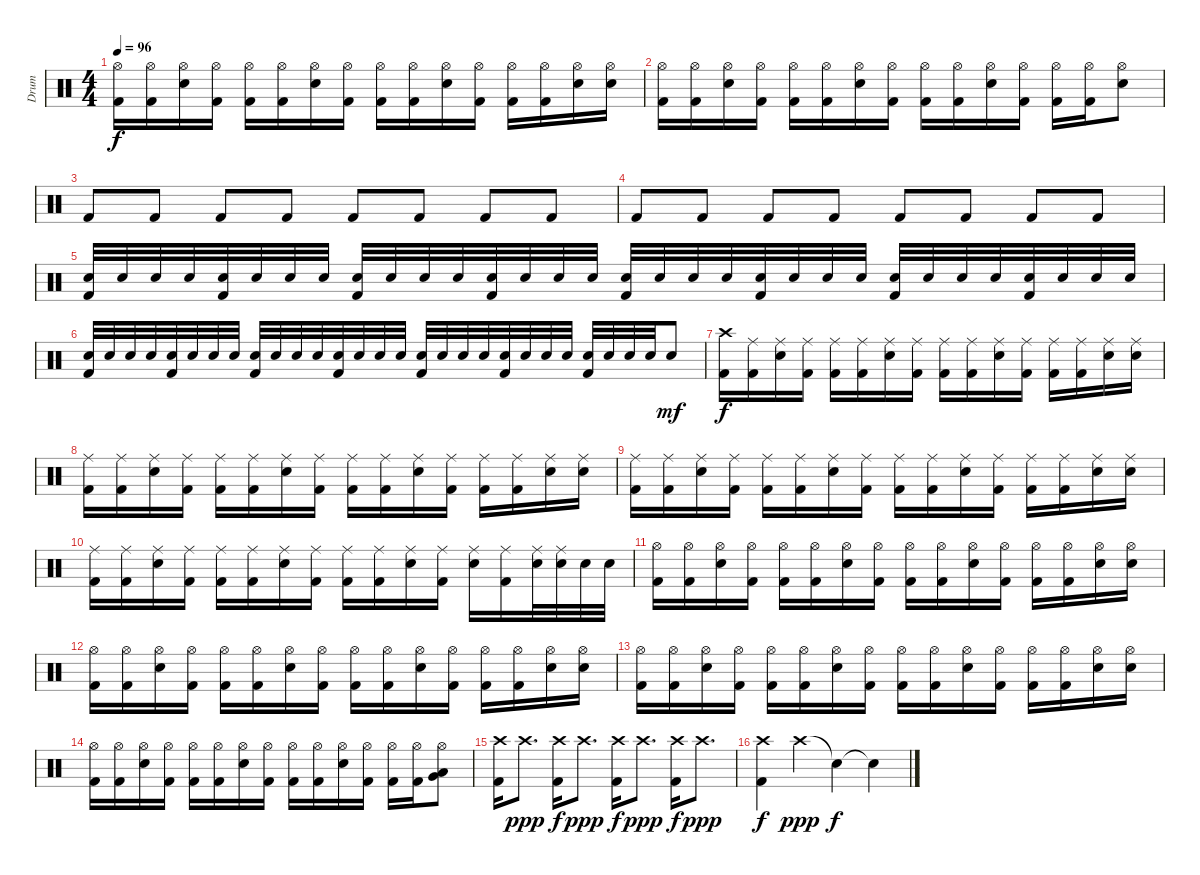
\track ("Drum" "Drum") {instrument percussion}
\staff {score}
\articulation defaults
\ts (4 4)
\tempo 96
\clef neutral
\ks c
("Kick (hit) 2" "Hi-Hat (open)").16{dy f} ("Kick (hit) 2" "Hi-Hat (open)").16 ("Snare (hit) 2" "Hi-Hat (open)").16 ("Kick (hit) 2" "Hi-Hat (open)").16 ("Kick (hit) 2" "Hi-Hat (open)").16 ("Kick (hit) 2" "Hi-Hat (open)").16 ("Snare (hit) 2" "Hi-Hat (open)").16 ("Kick (hit) 2" "Hi-Hat (open)").16 ("Kick (hit) 2" "Hi-Hat (open)").16 ("Kick (hit) 2" "Hi-Hat (open)").16 ("Snare (hit) 2" "Hi-Hat (open)").16 ("Kick (hit) 2" "Hi-Hat (open)").16 ("Kick (hit) 2" "Hi-Hat (open)").16 ("Kick (hit) 2" "Hi-Hat (open)").16 ("Snare (hit) 2" "Hi-Hat (open)").16 ("Snare (hit) 2" "Hi-Hat (open)").16 |
("Kick (hit) 2" "Hi-Hat (open)").16 ("Kick (hit) 2" "Hi-Hat (open)").16 ("Snare (hit) 2" "Hi-Hat (open)").16 ("Kick (hit) 2" "Hi-Hat (open)").16 ("Kick (hit) 2" "Hi-Hat (open)").16 ("Kick (hit) 2" "Hi-Hat (open)").16 ("Snare (hit) 2" "Hi-Hat (open)").16 ("Kick (hit) 2" "Hi-Hat (open)").16 ("Kick (hit) 2" "Hi-Hat (open)").16 ("Kick (hit) 2" "Hi-Hat (open)").16 ("Snare (hit) 2" "Hi-Hat (open)").16 ("Kick (hit) 2" "Hi-Hat (open)").16 ("Kick (hit) 2" "Hi-Hat (open)").16 ("Kick (hit) 2" "Hi-Hat (open)").16 ("Snare (hit) 2" "Hi-Hat (open)").8 |
"Kick (hit) 2".8 "Kick (hit) 2".8 "Kick (hit) 2".8 "Kick (hit) 2".8 "Kick (hit) 2".8 "Kick (hit) 2".8 "Kick (hit) 2".8 "Kick (hit) 2".8 |
"Kick (hit) 2".8 "Kick (hit) 2".8 "Kick (hit) 2".8 "Kick (hit) 2".8 "Kick (hit) 2".8 "Kick (hit) 2".8 "Kick (hit) 2".8 "Kick (hit) 2".8 |
("Kick (hit) 2" "Snare (hit) 2").32 "Snare (hit) 2".32 "Snare (hit) 2".32 "Snare (hit) 2".32 ("Kick (hit) 2" "Snare (hit) 2").32 "Snare (hit) 2".32 "Snare (hit) 2".32 "Snare (hit) 2".32 ("Kick (hit) 2" "Snare (hit) 2").32 "Snare (hit) 2".32 "Snare (hit) 2".32 "Snare (hit) 2".32 ("Kick (hit) 2" "Snare (hit) 2").32 "Snare (hit) 2".32 "Snare (hit) 2".32 "Snare (hit) 2".32 ("Kick (hit) 2" "Snare (hit) 2").32 "Snare (hit) 2".32 "Snare (hit) 2".32 "Snare (hit) 2".32 ("Kick (hit) 2" "Snare (hit) 2").32 "Snare (hit) 2".32 "Snare (hit) 2".32 "Snare (hit) 2".32 ("Kick (hit) 2" "Snare (hit) 2").32 "Snare (hit) 2".32 "Snare (hit) 2".32 "Snare (hit) 2".32 ("Kick (hit) 2" "Snare (hit) 2").32 "Snare (hit) 2".32 "Snare (hit) 2".32 "Snare (hit) 2".32 |
("Kick (hit) 2" "Snare (hit) 2").32 "Snare (hit) 2".32 "Snare (hit) 2".32 "Snare (hit) 2".32 ("Kick (hit) 2" "Snare (hit) 2").32 "Snare (hit) 2".32 "Snare (hit) 2".32 "Snare (hit) 2".32 ("Kick (hit) 2" "Snare (hit) 2").32 "Snare (hit) 2".32 "Snare (hit) 2".32 "Snare (hit) 2".32 ("Kick (hit) 2" "Snare (hit) 2").32 "Snare (hit) 2".32 "Snare (hit) 2".32 "Snare (hit) 2".32 ("Kick (hit) 2" "Snare (hit) 2").32 "Snare (hit) 2".32 "Snare (hit) 2".32 "Snare (hit) 2".32 ("Kick (hit) 2" "Snare (hit) 2").32 "Snare (hit) 2".32 "Snare (hit) 2".32 "Snare (hit) 2".32 ("Kick (hit) 2" "Snare (hit) 2").32 "Snare (hit) 2".32 "Snare (hit) 2".32 "Snare (hit) 2".32 "Snare (hit) 2".8{dy mf} |
("Kick (hit) 2" "Crash high (hit)").16{dy f} ("Kick (hit) 2" "Ride (middle)").16 ("Snare (hit) 2" "Ride (middle)").16 ("Kick (hit) 2" "Ride (middle)").16 ("Kick (hit) 2" "Ride (middle)").16 ("Kick (hit) 2" "Ride (middle)").16 ("Snare (hit) 2" "Ride (middle)").16 ("Kick (hit) 2" "Ride (middle)").16 ("Kick (hit) 2" "Ride (middle)").16 ("Kick (hit) 2" "Ride (middle)").16 ("Snare (hit) 2" "Ride (middle)").16 ("Kick (hit) 2" "Ride (middle)").16 ("Kick (hit) 2" "Ride (middle)").16 ("Kick (hit) 2" "Ride (middle)").16 ("Snare (hit) 2" "Ride (middle)").16 ("Snare (hit) 2" "Ride (middle)").16 |
("Kick (hit) 2" "Ride (middle)").16 ("Kick (hit) 2" "Ride (middle)").16 ("Snare (hit) 2" "Ride (middle)").16 ("Kick (hit) 2" "Ride (middle)").16 ("Kick (hit) 2" "Ride (middle)").16 ("Kick (hit) 2" "Ride (middle)").16 ("Snare (hit) 2" "Ride (middle)").16 ("Kick (hit) 2" "Ride (middle)").16 ("Kick (hit) 2" "Ride (middle)").16 ("Kick (hit) 2" "Ride (middle)").16 ("Snare (hit) 2" "Ride (middle)").16 ("Kick (hit) 2" "Ride (middle)").16 ("Kick (hit) 2" "Ride (middle)").16 ("Kick (hit) 2" "Ride (middle)").16 ("Snare (hit) 2" "Ride (middle)").16 ("Snare (hit) 2" "Ride (middle)").16 |
("Kick (hit) 2" "Ride (middle)").16 ("Kick (hit) 2" "Ride (middle)").16 ("Snare (hit) 2" "Ride (middle)").16 ("Kick (hit) 2" "Ride (middle)").16 ("Kick (hit) 2" "Ride (middle)").16 ("Kick (hit) 2" "Ride (middle)").16 ("Snare (hit) 2" "Ride (middle)").16 ("Kick (hit) 2" "Ride (middle)").16 ("Kick (hit) 2" "Ride (middle)").16 ("Kick (hit) 2" "Ride (middle)").16 ("Snare (hit) 2" "Ride (middle)").16 ("Kick (hit) 2" "Ride (middle)").16 ("Kick (hit) 2" "Ride (middle)").16 ("Kick (hit) 2" "Ride (middle)").16 ("Snare (hit) 2" "Ride (middle)").16 ("Snare (hit) 2" "Ride (middle)").16 |
("Kick (hit) 2" "Ride (middle)").16 ("Kick (hit) 2" "Ride (middle)").16 ("Snare (hit) 2" "Ride (middle)").16 ("Kick (hit) 2" "Ride (middle)").16 ("Kick (hit) 2" "Ride (middle)").16 ("Kick (hit) 2" "Ride (middle)").16 ("Snare (hit) 2" "Ride (middle)").16 ("Kick (hit) 2" "Ride (middle)").16 ("Kick (hit) 2" "Ride (middle)").16 ("Kick (hit) 2" "Ride (middle)").16 ("Snare (hit) 2" "Ride (middle)").16 ("Kick (hit) 2" "Ride (middle)").16 ("Snare (hit) 2" "Ride (middle)").16 ("Kick (hit) 2" "Ride (middle)").16 ("Electric Snare (hit)" "Ride (middle)").32 ("Electric Snare (hit)" "Ride (middle)").32 "Electric Snare (hit)".32 "Electric Snare (hit)".32 |
("Kick (hit) 2" "Hi-Hat (open)").16 ("Kick (hit) 2" "Hi-Hat (open)").16 ("Snare (hit) 2" "Hi-Hat (open)").16 ("Kick (hit) 2" "Hi-Hat (open)").16 ("Kick (hit) 2" "Hi-Hat (open)").16 ("Kick (hit) 2" "Hi-Hat (open)").16 ("Snare (hit) 2" "Hi-Hat (open)").16 ("Kick (hit) 2" "Hi-Hat (open)").16 ("Kick (hit) 2" "Hi-Hat (open)").16 ("Kick (hit) 2" "Hi-Hat (open)").16 ("Snare (hit) 2" "Hi-Hat (open)").16 ("Kick (hit) 2" "Hi-Hat (open)").16 ("Kick (hit) 2" "Hi-Hat (open)").16 ("Kick (hit) 2" "Hi-Hat (open)").16 ("Snare (hit) 2" "Hi-Hat (open)").16 ("Snare (hit) 2" "Hi-Hat (open)").16 |
("Kick (hit) 2" "Hi-Hat (open)").16 ("Kick (hit) 2" "Hi-Hat (open)").16 ("Snare (hit) 2" "Hi-Hat (open)").16 ("Kick (hit) 2" "Hi-Hat (open)").16 ("Kick (hit) 2" "Hi-Hat (open)").16 ("Kick (hit) 2" "Hi-Hat (open)").16 ("Snare (hit) 2" "Hi-Hat (open)").16 ("Kick (hit) 2" "Hi-Hat (open)").16 ("Kick (hit) 2" "Hi-Hat (open)").16 ("Kick (hit) 2" "Hi-Hat (open)").16 ("Snare (hit) 2" "Hi-Hat (open)").16 ("Kick (hit) 2" "Hi-Hat (open)").16 ("Kick (hit) 2" "Hi-Hat (open)").16 ("Kick (hit) 2" "Hi-Hat (open)").16 ("Snare (hit) 2" "Hi-Hat (open)").16 ("Snare (hit) 2" "Hi-Hat (open)").16 |
("Kick (hit) 2" "Hi-Hat (open)").16 ("Kick (hit) 2" "Hi-Hat (open)").16 ("Snare (hit) 2" "Hi-Hat (open)").16 ("Kick (hit) 2" "Hi-Hat (open)").16 ("Kick (hit) 2" "Hi-Hat (open)").16 ("Kick (hit) 2" "Hi-Hat (open)").16 ("Snare (hit) 2" "Hi-Hat (open)").16 ("Kick (hit) 2" "Hi-Hat (open)").16 ("Kick (hit) 2" "Hi-Hat (open)").16 ("Kick (hit) 2" "Hi-Hat (open)").16 ("Snare (hit) 2" "Hi-Hat (open)").16 ("Kick (hit) 2" "Hi-Hat (open)").16 ("Kick (hit) 2" "Hi-Hat (open)").16 ("Kick (hit) 2" "Hi-Hat (open)").16 ("Snare (hit) 2" "Hi-Hat (open)").16 ("Snare (hit) 2" "Hi-Hat (open)").16 |
("Kick (hit) 2" "Hi-Hat (open)").16 ("Kick (hit) 2" "Hi-Hat (open)").16 ("Snare (hit) 2" "Hi-Hat (open)").16 ("Kick (hit) 2" "Hi-Hat (open)").16 ("Kick (hit) 2" "Hi-Hat (open)").16 ("Kick (hit) 2" "Hi-Hat (open)").16 ("Snare (hit) 2" "Hi-Hat (open)").16 ("Kick (hit) 2" "Hi-Hat (open)").16 ("Kick (hit) 2" "Hi-Hat (open)").16 ("Kick (hit) 2" "Hi-Hat (open)").16 ("Snare (hit) 2" "Hi-Hat (open)").16 ("Kick (hit) 2" "Hi-Hat (open)").16 ("Kick (hit) 2" "Hi-Hat (open)").16 ("Kick (hit) 2" "Hi-Hat (open)").16 ("Low Tom (hit)" "Very Low Tom (hit)" "Hi-Hat (open)").8 |
("Kick (hit) 2" "Crash high (hit)").16 "Crash high (hit)".8{d dy ppp} ("Kick (hit) 2" "Crash high (hit)").16{dy f} "Crash high (hit)".8{d dy ppp} ("Kick (hit) 2" "Crash high (hit)").16{dy f} "Crash high (hit)".8{d dy ppp} ("Kick (hit) 2" "Crash high (hit)").16{dy f} "Crash high (hit)".8{d dy ppp} |
("Kick (hit) 2" "Crash high (hit)").4{dy f} "Crash high (hit)".4{dy ppp} "Snare (hit)"{t}.4{dy f} "Snare (hit)"{t}.4
